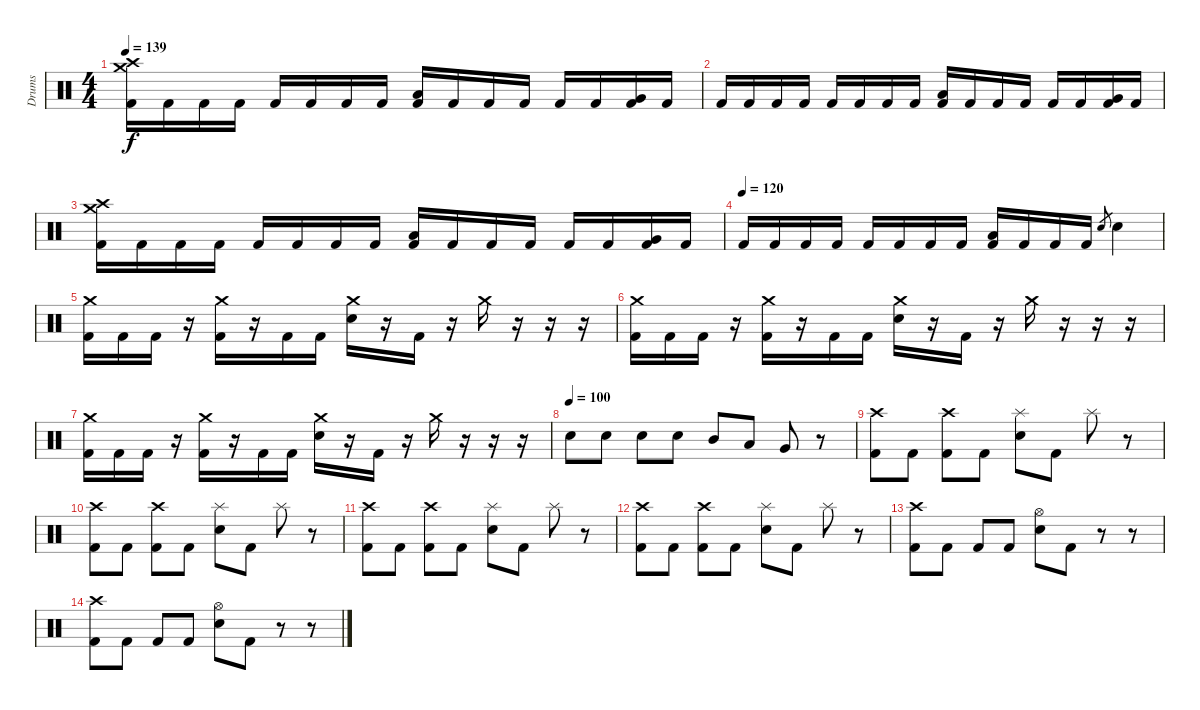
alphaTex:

\track ("Drums" "Drums") {instrument percussion}
\staff {score}
\articulation defaults
\ts (4 4)
\tempo 139
\clef neutral
\ks c
("Crash high (hit)" "Crash medium (hit)" "Kick (hit) 2").16{dy f} "Kick (hit) 2".16 "Kick (hit) 2".16 "Kick (hit) 2".16 "Kick (hit) 2".16 "Kick (hit) 2".16 "Kick (hit) 2".16 "Kick (hit) 2".16 ("Low Tom (hit)" "Kick (hit) 2").16 "Kick (hit) 2".16 "Kick (hit) 2".16 "Kick (hit) 2".16 "Kick (hit) 2".16 "Kick (hit) 2".16 ("Very Low Tom (hit)" "Kick (hit) 2").16 "Kick (hit) 2".16 |
"Kick (hit) 2".16 "Kick (hit) 2".16 "Kick (hit) 2".16 "Kick (hit) 2".16 "Kick (hit) 2".16 "Kick (hit) 2".16 "Kick (hit) 2".16 "Kick (hit) 2".16 ("Low Tom (hit)" "Kick (hit) 2").16 "Kick (hit) 2".16 "Kick (hit) 2".16 "Kick (hit) 2".16 "Kick (hit) 2".16 "Kick (hit) 2".16 ("Very Low Tom (hit)" "Kick (hit) 2").16 "Kick (hit) 2".16 |
("Crash high (hit)" "Crash medium (hit)" "Kick (hit) 2").16 "Kick (hit) 2".16 "Kick (hit) 2".16 "Kick (hit) 2".16 "Kick (hit) 2".16 "Kick (hit) 2".16 "Kick (hit) 2".16 "Kick (hit) 2".16 ("Low Tom (hit)" "Kick (hit) 2").16 "Kick (hit) 2".16 "Kick (hit) 2".16 "Kick (hit) 2".16 "Kick (hit) 2".16 "Kick (hit) 2".16 ("Very Low Tom (hit)" "Kick (hit) 2").16 "Kick (hit) 2".16 |
\tempo (120)
"Kick (hit) 2".16 "Kick (hit) 2".16 "Kick (hit) 2".16 "Kick (hit) 2".16 "Kick (hit) 2".16 "Kick (hit) 2".16 "Kick (hit) 2".16 "Kick (hit) 2".16 ("Low Tom (hit)" "Kick (hit) 2").16 "Kick (hit) 2".16 "Kick (hit) 2".16 "Kick (hit) 2".16 "Electric Snare (hit)".8{gr} "Electric Snare (hit)".4 |
("Crash medium (hit)" "Kick (hit) 2").16 "Kick (hit) 2".16 "Kick (hit) 2".16 r.16 ("Crash medium (hit)" "Kick (hit) 2").16 r.16 "Kick (hit) 2".16 "Kick (hit) 2".16 ("Crash medium (hit)" "Electric Snare (hit)").16 r.16 "Kick (hit) 2".16 r.16 "Crash medium (hit)".16 r.16 r.16 r.16 |
("Crash medium (hit)" "Kick (hit) 2").16 "Kick (hit) 2".16 "Kick (hit) 2".16 r.16 ("Crash medium (hit)" "Kick (hit) 2").16 r.16 "Kick (hit) 2".16 "Kick (hit) 2".16 ("Crash medium (hit)" "Electric Snare (hit)").16 r.16 "Kick (hit) 2".16 r.16 "Crash medium (hit)".16 r.16 r.16 r.16 |
("Crash medium (hit)" "Kick (hit) 2").16 "Kick (hit) 2".16 "Kick (hit) 2".16 r.16 ("Crash medium (hit)" "Kick (hit) 2").16 r.16 "Kick (hit) 2".16 "Kick (hit) 2".16 ("Crash medium (hit)" "Electric Snare (hit)").16 r.16 "Kick (hit) 2".16 r.16 "Crash medium (hit)".16 r.16 r.16 r.16 |
\tempo (100)
"Electric Snare (hit)".8 "Electric Snare (hit)".8 "Electric Snare (hit)".8 "Electric Snare (hit)".8 "Mid Tom (hit)".8 "Low Tom (hit)".8 "Very Low Tom (hit)".8 r.8 |
("Crash high (hit)" "Kick (hit) 2").8 "Kick (hit) 2".8 ("Crash high (hit)" "Kick (hit) 2").8 "Kick (hit) 2".8 ("Splash (hit)" "Electric Snare (hit)").8 "Kick (hit) 2".8 "Splash (hit)".8 r.8 |
("Crash high (hit)" "Kick (hit) 2").8 "Kick (hit) 2".8 ("Crash high (hit)" "Kick (hit) 2").8 "Kick (hit) 2".8 ("Splash (hit)" "Electric Snare (hit)").8 "Kick (hit) 2".8 "Splash (hit)".8 r.8 |
("Crash high (hit)" "Kick (hit) 2").8 "Kick (hit) 2".8 ("Crash high (hit)" "Kick (hit) 2").8 "Kick (hit) 2".8 ("Splash (hit)" "Electric Snare (hit)").8 "Kick (hit) 2".8 "Splash (hit)".8 r.8 |
("Crash high (hit)" "Kick (hit) 2").8 "Kick (hit) 2".8 ("Crash high (hit)" "Kick (hit) 2").8 "Kick (hit) 2".8 ("Splash (hit)" "Electric Snare (hit)").8 "Kick (hit) 2".8 "Splash (hit)".8 r.8 |
("Crash high (hit)" "Kick (hit) 2").8 "Kick (hit) 2".8 "Kick (hit) 2".8 "Kick (hit) 2".8 ("Hi-Hat (open)" "Electric Snare (hit)").8 "Kick (hit) 2".8 r.8 r.8 |
("Crash high (hit)" "Kick (hit) 2").8 "Kick (hit) 2".8 "Kick (hit) 2".8 "Kick (hit) 2".8 ("Hi-Hat (open)" "Electric Snare (hit)").8 "Kick (hit) 2".8 r.8 r.8
